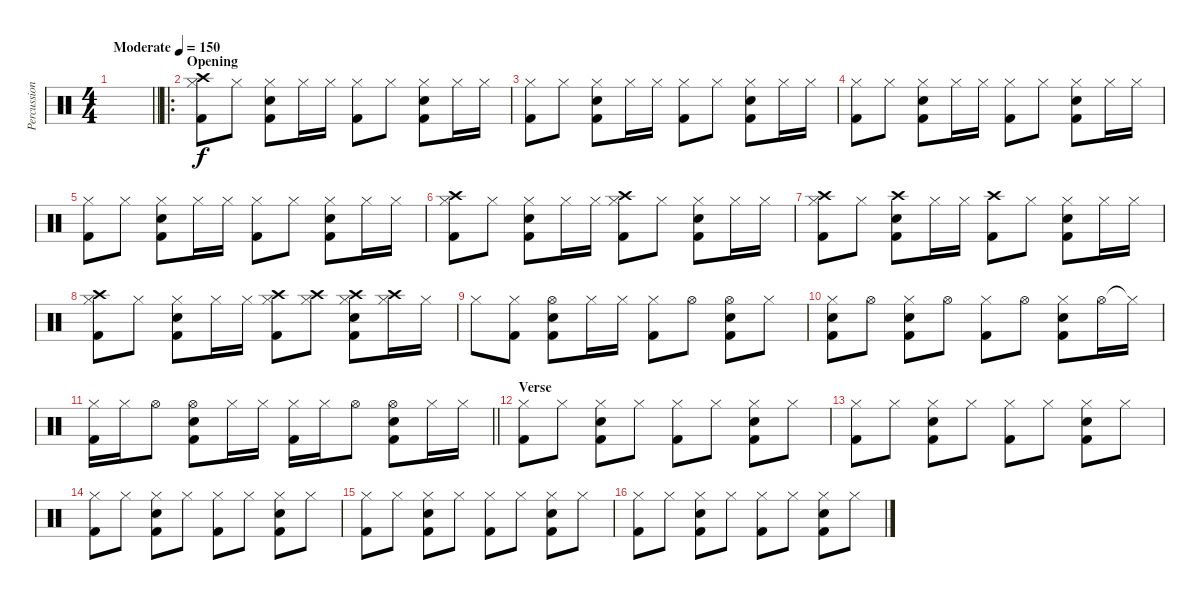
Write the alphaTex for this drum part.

\track ("Percussion" "Percussion") {instrument percussion}
\staff {score}
\articulation defaults
\ts (4 4)
\tempo (150 "Moderate")
\clef neutral
\barLineRight lightlight
\ks c
|
\ro
\section ("" "Opening")
("Hi-Hat (closed)" "Crash high (hit)" "Kick (hit) 2").8 "Hi-Hat (closed)".8 ("Hi-Hat (closed)" "Snare (hit) 2" "Kick (hit) 2").8 "Hi-Hat (closed)".16 "Hi-Hat (closed)".16 ("Hi-Hat (closed)" "Kick (hit) 2").8 "Hi-Hat (closed)".8 ("Hi-Hat (closed)" "Snare (hit) 2" "Kick (hit) 2").8 "Hi-Hat (closed)".16 "Hi-Hat (closed)".16 |
("Hi-Hat (closed)" "Kick (hit) 2").8 "Hi-Hat (closed)".8 ("Hi-Hat (closed)" "Snare (hit) 2" "Kick (hit) 2").8 "Hi-Hat (closed)".16 "Hi-Hat (closed)".16 ("Hi-Hat (closed)" "Kick (hit) 2").8 "Hi-Hat (closed)".8 ("Hi-Hat (closed)" "Snare (hit) 2" "Kick (hit) 2").8 "Hi-Hat (closed)".16 "Hi-Hat (closed)".16 |
("Hi-Hat (closed)" "Kick (hit) 2").8 "Hi-Hat (closed)".8 ("Hi-Hat (closed)" "Snare (hit) 2" "Kick (hit) 2").8 "Hi-Hat (closed)".16 "Hi-Hat (closed)".16 ("Hi-Hat (closed)" "Kick (hit) 2").8 "Hi-Hat (closed)".8 ("Hi-Hat (closed)" "Snare (hit) 2" "Kick (hit) 2").8 "Hi-Hat (closed)".16 "Hi-Hat (closed)".16 |
("Hi-Hat (closed)" "Kick (hit) 2").8 "Hi-Hat (closed)".8 ("Hi-Hat (closed)" "Snare (hit) 2" "Kick (hit) 2").8 "Hi-Hat (closed)".16 "Hi-Hat (closed)".16 ("Hi-Hat (closed)" "Kick (hit) 2").8 "Hi-Hat (closed)".8 ("Hi-Hat (closed)" "Snare (hit) 2" "Kick (hit) 2").8 "Hi-Hat (closed)".16 "Hi-Hat (closed)".16 |
("Hi-Hat (closed)" "Crash high (hit)" "Kick (hit) 2").8 "Hi-Hat (closed)".8 ("Hi-Hat (closed)" "Snare (hit) 2" "Kick (hit) 2").8 "Hi-Hat (closed)".16 "Hi-Hat (closed)".16 ("Hi-Hat (closed)" "Crash high (hit)" "Kick (hit) 2").8 "Hi-Hat (closed)".8 ("Hi-Hat (closed)" "Snare (hit) 2" "Kick (hit) 2").8 "Hi-Hat (closed)".16 "Hi-Hat (closed)".16 |
("Hi-Hat (closed)" "Crash high (hit)" "Kick (hit) 2").8 "Hi-Hat (closed)".8 ("Crash high (hit)" "Snare (hit) 2" "Kick (hit) 2").8 "Hi-Hat (closed)".16 "Hi-Hat (closed)".16 ("Crash high (hit)" "Kick (hit) 2").8 "Hi-Hat (closed)".8 ("Hi-Hat (closed)" "Snare (hit) 2" "Kick (hit) 2").8 "Hi-Hat (closed)".16 "Hi-Hat (closed)".16 |
("Hi-Hat (closed)" "Crash high (hit)" "Kick (hit) 2").8 "Hi-Hat (closed)".8 ("Hi-Hat (closed)" "Snare (hit) 2" "Kick (hit) 2").8 "Hi-Hat (closed)".16 "Hi-Hat (closed)".16 ("Hi-Hat (closed)" "Crash high (hit)" "Kick (hit) 2").8 ("Hi-Hat (closed)" "Crash high (hit)").8 ("Hi-Hat (closed)" "Snare (hit) 2" "Crash high (hit)" "Kick (hit) 2").8 ("Hi-Hat (closed)" "Crash high (hit)").16 "Hi-Hat (closed)".16 |
"Hi-Hat (closed)".8 ("Hi-Hat (closed)" "Kick (hit) 2").8 ("Hi-Hat (open)" "Snare (hit) 2" "Kick (hit) 2").8 "Hi-Hat (closed)".16 "Hi-Hat (closed)".16 ("Hi-Hat (closed)" "Kick (hit) 2").8 "Hi-Hat (open)".8 ("Hi-Hat (open)" "Snare (hit) 2" "Kick (hit) 2").8 "Hi-Hat (closed)".8 |
("Hi-Hat (closed)" "Electric Snare (hit)" "Kick (hit) 2").8 "Hi-Hat (open)".8 ("Hi-Hat (closed)" "Snare (hit) 2" "Kick (hit) 2").8 "Hi-Hat (open)".8 ("Hi-Hat (closed)" "Kick (hit) 2").8 "Hi-Hat (open)".8 ("Hi-Hat (closed)" "Snare (hit) 2" "Kick (hit) 2").8 "Hi-Hat (open)".16 "Hi-Hat (closed)"{t}.16 |
\barLineRight lightlight
("Hi-Hat (closed)" "Kick (hit) 2").16 "Hi-Hat (closed)".16 "Hi-Hat (open)".8 ("Hi-Hat (open)" "Snare (hit) 2" "Kick (hit) 2").8 "Hi-Hat (closed)".16 "Hi-Hat (closed)".16 ("Hi-Hat (closed)" "Kick (hit) 2").16 "Hi-Hat (closed)".16 "Hi-Hat (open)".8 ("Hi-Hat (open)" "Snare (hit) 2" "Kick (hit) 2").8 "Hi-Hat (closed)".16 "Hi-Hat (closed)".16 |
\section ("" "Verse")
("Hi-Hat (closed)" "Kick (hit) 2").8 "Hi-Hat (closed)".8 ("Hi-Hat (closed)" "Snare (hit) 2" "Kick (hit) 2").8 "Hi-Hat (closed)".8 ("Hi-Hat (closed)" "Kick (hit) 2").8 "Hi-Hat (closed)".8 ("Hi-Hat (closed)" "Snare (hit) 2" "Kick (hit) 2").8 "Hi-Hat (closed)".8 |
("Hi-Hat (closed)" "Kick (hit) 2").8 "Hi-Hat (closed)".8 ("Hi-Hat (closed)" "Snare (hit) 2" "Kick (hit) 2").8 "Hi-Hat (closed)".8 ("Hi-Hat (closed)" "Kick (hit) 2").8 "Hi-Hat (closed)".8 ("Hi-Hat (closed)" "Snare (hit) 2" "Kick (hit) 2").8 "Hi-Hat (closed)".8 |
("Hi-Hat (closed)" "Kick (hit) 2").8 "Hi-Hat (closed)".8 ("Hi-Hat (closed)" "Snare (hit) 2" "Kick (hit) 2").8 "Hi-Hat (closed)".8 ("Hi-Hat (closed)" "Kick (hit) 2").8 "Hi-Hat (closed)".8 ("Hi-Hat (closed)" "Snare (hit) 2" "Kick (hit) 2").8 "Hi-Hat (closed)".8 |
("Hi-Hat (closed)" "Kick (hit) 2").8 "Hi-Hat (closed)".8 ("Hi-Hat (closed)" "Snare (hit) 2" "Kick (hit) 2").8 "Hi-Hat (closed)".8 ("Hi-Hat (closed)" "Kick (hit) 2").8 "Hi-Hat (closed)".8 ("Hi-Hat (closed)" "Snare (hit) 2" "Kick (hit) 2").8 "Hi-Hat (closed)".8 |
("Hi-Hat (closed)" "Kick (hit) 2").8 "Hi-Hat (closed)".8 ("Hi-Hat (closed)" "Snare (hit) 2" "Kick (hit) 2").8 "Hi-Hat (closed)".8 ("Hi-Hat (closed)" "Kick (hit) 2").8 "Hi-Hat (closed)".8 ("Hi-Hat (closed)" "Snare (hit) 2" "Kick (hit) 2").8 "Hi-Hat (closed)".8
